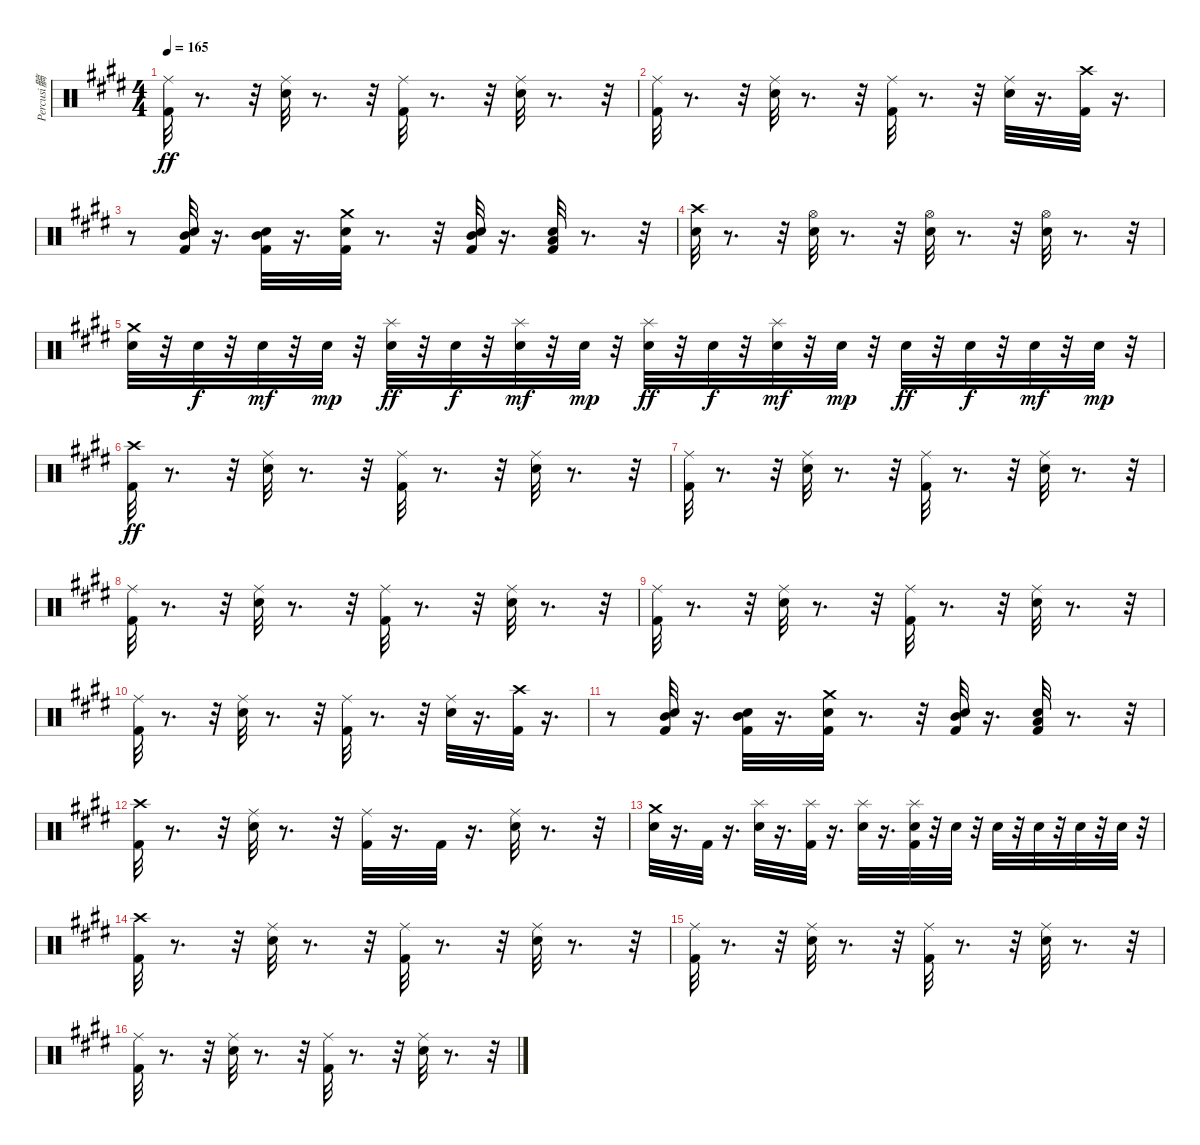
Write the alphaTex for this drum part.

\track ("Percusi髇" "Percusi髇") {instrument percussion}
\staff {score}
\articulation defaults
\ts (4 4)
\tempo 165
\clef neutral
\ks e
("Kick (hit) 2" "Ride (middle)").32{dy ff} r.8{d} r.32 ("Electric Snare (hit)" "Ride (middle)").32 r.8{d} r.32 ("Kick (hit) 2" "Ride (middle)").32 r.8{d} r.32 ("Electric Snare (hit)" "Ride (middle)").32 r.8{d} r.32 |
("Kick (hit) 2" "Ride (middle)").32 r.8{d} r.32 ("Electric Snare (hit)" "Ride (middle)").32 r.8{d} r.32 ("Kick (hit) 2" "Ride (middle)").32 r.8{d} r.32 ("Electric Snare (hit)" "Ride (middle)").32 r.16{d} ("Crash high (hit)" "Kick (hit) 2").32 r.16{d} |
r.8 ("Mid Tom (hit)" "Kick (hit) 2" "Electric Snare (hit)").32 r.16{d} ("Mid Tom (hit)" "Kick (hit) 2" "Electric Snare (hit)").32 r.16{d} ("Crash medium (hit)" "Kick (hit) 2" "Electric Snare (hit)").32 r.8{d} r.32 ("Mid Tom (hit)" "Kick (hit) 2" "Electric Snare (hit)").32 r.16{d} ("Kick (hit) 2" "Low Tom (hit)" "Electric Snare (hit)").32 r.8{d} r.32 |
("Crash high (hit)" "Electric Snare (hit)").32 r.8{d} r.32 ("Electric Snare (hit)" "Hi-Hat (open)").32 r.8{d} r.32 ("Electric Snare (hit)" "Hi-Hat (open)").32 r.8{d} r.32 ("Electric Snare (hit)" "Hi-Hat (open)").32 r.8{d} r.32 |
("Crash medium (hit)" "Electric Snare (hit)").32 r.32 "Electric Snare (hit)".32{dy f} r.32 "Electric Snare (hit)".32{dy mf} r.32 "Electric Snare (hit)".32{dy mp} r.32 ("Splash (hit)" "Electric Snare (hit)").32{dy ff} r.32 "Electric Snare (hit)".32{dy f} r.32 ("Splash (hit)" "Electric Snare (hit)").32{dy mf} r.32 "Electric Snare (hit)".32{dy mp} r.32 ("Splash (hit)" "Electric Snare (hit)").32{dy ff} r.32 "Electric Snare (hit)".32{dy f} r.32 ("Splash (hit)" "Electric Snare (hit)").32{dy mf} r.32 "Electric Snare (hit)".32{dy mp} r.32 "Electric Snare (hit)".32{dy ff} r.32 "Electric Snare (hit)".32{dy f} r.32 "Electric Snare (hit)".32{dy mf} r.32 "Electric Snare (hit)".32{dy mp} r.32 |
("Crash high (hit)" "Kick (hit) 2").32{dy ff} r.8{d} r.32 ("Electric Snare (hit)" "Ride (middle)").32 r.8{d} r.32 ("Kick (hit) 2" "Ride (middle)").32 r.8{d} r.32 ("Electric Snare (hit)" "Ride (middle)").32 r.8{d} r.32 |
("Kick (hit) 2" "Ride (middle)").32 r.8{d} r.32 ("Electric Snare (hit)" "Ride (middle)").32 r.8{d} r.32 ("Kick (hit) 2" "Ride (middle)").32 r.8{d} r.32 ("Electric Snare (hit)" "Ride (middle)").32 r.8{d} r.32 |
("Kick (hit) 2" "Ride (middle)").32 r.8{d} r.32 ("Electric Snare (hit)" "Ride (middle)").32 r.8{d} r.32 ("Kick (hit) 2" "Ride (middle)").32 r.8{d} r.32 ("Electric Snare (hit)" "Ride (middle)").32 r.8{d} r.32 |
("Kick (hit) 2" "Ride (middle)").32 r.8{d} r.32 ("Electric Snare (hit)" "Ride (middle)").32 r.8{d} r.32 ("Kick (hit) 2" "Ride (middle)").32 r.8{d} r.32 ("Electric Snare (hit)" "Ride (middle)").32 r.8{d} r.32 |
("Kick (hit) 2" "Ride (middle)").32 r.8{d} r.32 ("Electric Snare (hit)" "Ride (middle)").32 r.8{d} r.32 ("Kick (hit) 2" "Ride (middle)").32 r.8{d} r.32 ("Electric Snare (hit)" "Ride (middle)").32 r.16{d} ("Crash high (hit)" "Kick (hit) 2").32 r.16{d} |
r.8 ("Mid Tom (hit)" "Kick (hit) 2" "Electric Snare (hit)").32 r.16{d} ("Mid Tom (hit)" "Kick (hit) 2" "Electric Snare (hit)").32 r.16{d} ("Crash medium (hit)" "Kick (hit) 2" "Electric Snare (hit)").32 r.8{d} r.32 ("Mid Tom (hit)" "Kick (hit) 2" "Electric Snare (hit)").32 r.16{d} ("Kick (hit) 2" "Low Tom (hit)" "Electric Snare (hit)").32 r.8{d} r.32 |
("Crash high (hit)" "Kick (hit) 2").32 r.8{d} r.32 ("Electric Snare (hit)" "Ride (middle)").32 r.8{d} r.32 ("Kick (hit) 2" "Ride (middle)").32 r.16{d} "Kick (hit) 2".32 r.16{d} ("Electric Snare (hit)" "Ride (middle)").32 r.8{d} r.32 |
("Crash medium (hit)" "Electric Snare (hit)").32 r.16{d} "Kick (hit) 2".32 r.16{d} ("Splash (hit)" "Electric Snare (hit)").32 r.16{d} ("Splash (hit)" "Kick (hit) 2").32 r.16{d} ("Splash (hit)" "Electric Snare (hit)").32 r.16{d} ("Splash (hit)" "Kick (hit) 2" "Electric Snare (hit)").32 r.32 "Electric Snare (hit)".32 r.32 "Electric Snare (hit)".32 r.32 "Electric Snare (hit)".32 r.32 "Electric Snare (hit)".32 r.32 "Electric Snare (hit)".32 r.32 |
("Crash high (hit)" "Kick (hit) 2").32 r.8{d} r.32 ("Electric Snare (hit)" "Ride (middle)").32 r.8{d} r.32 ("Kick (hit) 2" "Ride (middle)").32 r.8{d} r.32 ("Electric Snare (hit)" "Ride (middle)").32 r.8{d} r.32 |
("Kick (hit) 2" "Ride (middle)").32 r.8{d} r.32 ("Electric Snare (hit)" "Ride (middle)").32 r.8{d} r.32 ("Kick (hit) 2" "Ride (middle)").32 r.8{d} r.32 ("Electric Snare (hit)" "Ride (middle)").32 r.8{d} r.32 |
("Kick (hit) 2" "Ride (middle)").32 r.8{d} r.32 ("Electric Snare (hit)" "Ride (middle)").32 r.8{d} r.32 ("Kick (hit) 2" "Ride (middle)").32 r.8{d} r.32 ("Electric Snare (hit)" "Ride (middle)").32 r.8{d} r.32
